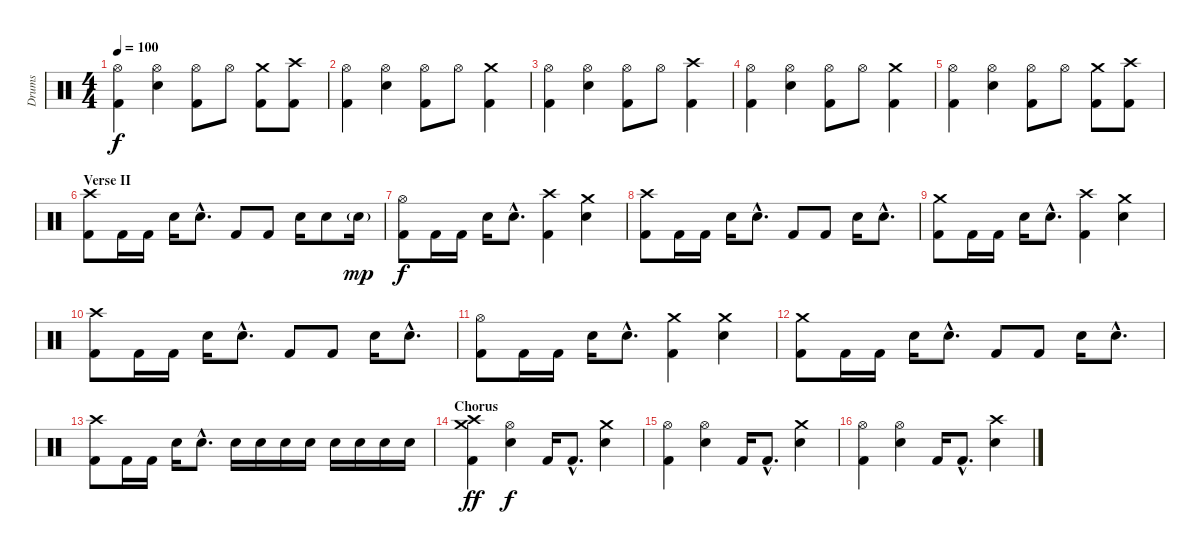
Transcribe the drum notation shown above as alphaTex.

\track ("Drums" "Drums") {instrument percussion}
\staff {score}
\articulation defaults
\ts (4 4)
\tempo 100
\clef neutral
\ks c
("Hi-Hat (open)" "Kick (hit) 2").4{dy f} ("Hi-Hat (open)" "Snare (hit) 2").4 ("Hi-Hat (open)" "Kick (hit) 2").8 "Hi-Hat (open)".8 ("Crash medium (hit)" "Kick (hit) 2").8 ("Crash high (hit)" "Kick (hit) 2").8 |
("Hi-Hat (open)" "Kick (hit) 2").4 ("Hi-Hat (open)" "Snare (hit) 2").4 ("Hi-Hat (open)" "Kick (hit) 2").8 "Hi-Hat (open)".8 ("Crash medium (hit)" "Kick (hit) 2").4 |
("Hi-Hat (open)" "Kick (hit) 2").4 ("Hi-Hat (open)" "Snare (hit) 2").4 ("Hi-Hat (open)" "Kick (hit) 2").8 "Hi-Hat (open)".8 ("Crash high (hit)" "Kick (hit) 2").4 |
("Hi-Hat (open)" "Kick (hit) 2").4 ("Hi-Hat (open)" "Snare (hit) 2").4 ("Hi-Hat (open)" "Kick (hit) 2").8 "Hi-Hat (open)".8 ("Crash medium (hit)" "Kick (hit) 2").4 |
("Hi-Hat (open)" "Kick (hit) 2").4 ("Hi-Hat (open)" "Snare (hit) 2").4 ("Hi-Hat (open)" "Kick (hit) 2").8 "Hi-Hat (open)".8 ("Crash medium (hit)" "Kick (hit) 2").8 ("Crash high (hit)" "Kick (hit) 2").8 |
\section ("" "Verse II")
("Crash high (hit)" "Kick (hit) 2").8 "Kick (hit) 2".16 "Kick (hit) 2".16 "Snare (hit) 2".16 "Snare (hit) 2"{hac}.8{d} "Kick (hit) 2".8 "Kick (hit) 2".8 "Snare (hit) 2".16 "Snare (hit) 2".8 "Electric Snare (hit)"{g}.16{dy mp} |
("Hi-Hat (open)" "Kick (hit) 2").8{dy f} "Kick (hit) 2".16 "Kick (hit) 2".16 "Snare (hit) 2".16 "Snare (hit) 2"{hac}.8{d} ("Crash high (hit)" "Kick (hit) 2").4 ("Crash medium (hit)" "Snare (hit) 2").4 |
("Crash high (hit)" "Kick (hit) 2").8 "Kick (hit) 2".16 "Kick (hit) 2".16 "Snare (hit) 2".16 "Snare (hit) 2"{hac}.8{d} "Kick (hit) 2".8 "Kick (hit) 2".8 "Snare (hit) 2".16 "Snare (hit) 2"{hac}.8{d} |
("Crash medium (hit)" "Kick (hit) 2").8 "Kick (hit) 2".16 "Kick (hit) 2".16 "Snare (hit) 2".16 "Snare (hit) 2"{hac}.8{d} ("Crash high (hit)" "Kick (hit) 2").4 ("Crash medium (hit)" "Snare (hit) 2").4 |
("Crash high (hit)" "Kick (hit) 2").8 "Kick (hit) 2".16 "Kick (hit) 2".16 "Snare (hit) 2".16 "Snare (hit) 2"{hac}.8{d} "Kick (hit) 2".8 "Kick (hit) 2".8 "Snare (hit) 2".16 "Snare (hit) 2"{hac}.8{d} |
("Hi-Hat (open)" "Kick (hit) 2").8 "Kick (hit) 2".16 "Kick (hit) 2".16 "Snare (hit) 2".16 "Snare (hit) 2"{hac}.8{d} ("Crash medium (hit)" "Kick (hit) 2").4 ("Crash medium (hit)" "Snare (hit) 2").4 |
("Crash medium (hit)" "Kick (hit) 2").8 "Kick (hit) 2".16 "Kick (hit) 2".16 "Snare (hit) 2".16 "Snare (hit) 2"{hac}.8{d} "Kick (hit) 2".8 "Kick (hit) 2".8 "Snare (hit) 2".16 "Snare (hit) 2"{hac}.8{d} |
("Crash high (hit)" "Kick (hit) 2").8 "Kick (hit) 2".16 "Kick (hit) 2".16 "Snare (hit) 2".16 "Snare (hit) 2"{hac}.8{d} "Electric Snare (hit)".16 "Electric Snare (hit)".16 "Electric Snare (hit)".16 "Electric Snare (hit)".16 "Electric Snare (hit)".16 "Electric Snare (hit)".16 "Electric Snare (hit)".16 "Electric Snare (hit)".16 |
\section ("" "Chorus")
("Crash high (hit)" "Crash medium (hit)" "Kick (hit) 2").4{dy ff} ("Hi-Hat (open)" "Snare (hit) 2").4{dy f} "Kick (hit) 2".16 "Kick (hit) 2"{hac}.8{d} ("Crash medium (hit)" "Snare (hit) 2").4 |
("Hi-Hat (open)" "Kick (hit) 2").4 ("Hi-Hat (open)" "Snare (hit) 2").4 "Kick (hit) 2".16 "Kick (hit) 2"{hac}.8{d} ("Crash medium (hit)" "Snare (hit) 2").4 |
("Hi-Hat (open)" "Kick (hit) 2").4 ("Hi-Hat (open)" "Snare (hit) 2").4 "Kick (hit) 2".16 "Kick (hit) 2"{hac}.8{d} ("Crash high (hit)" "Snare (hit) 2").4
